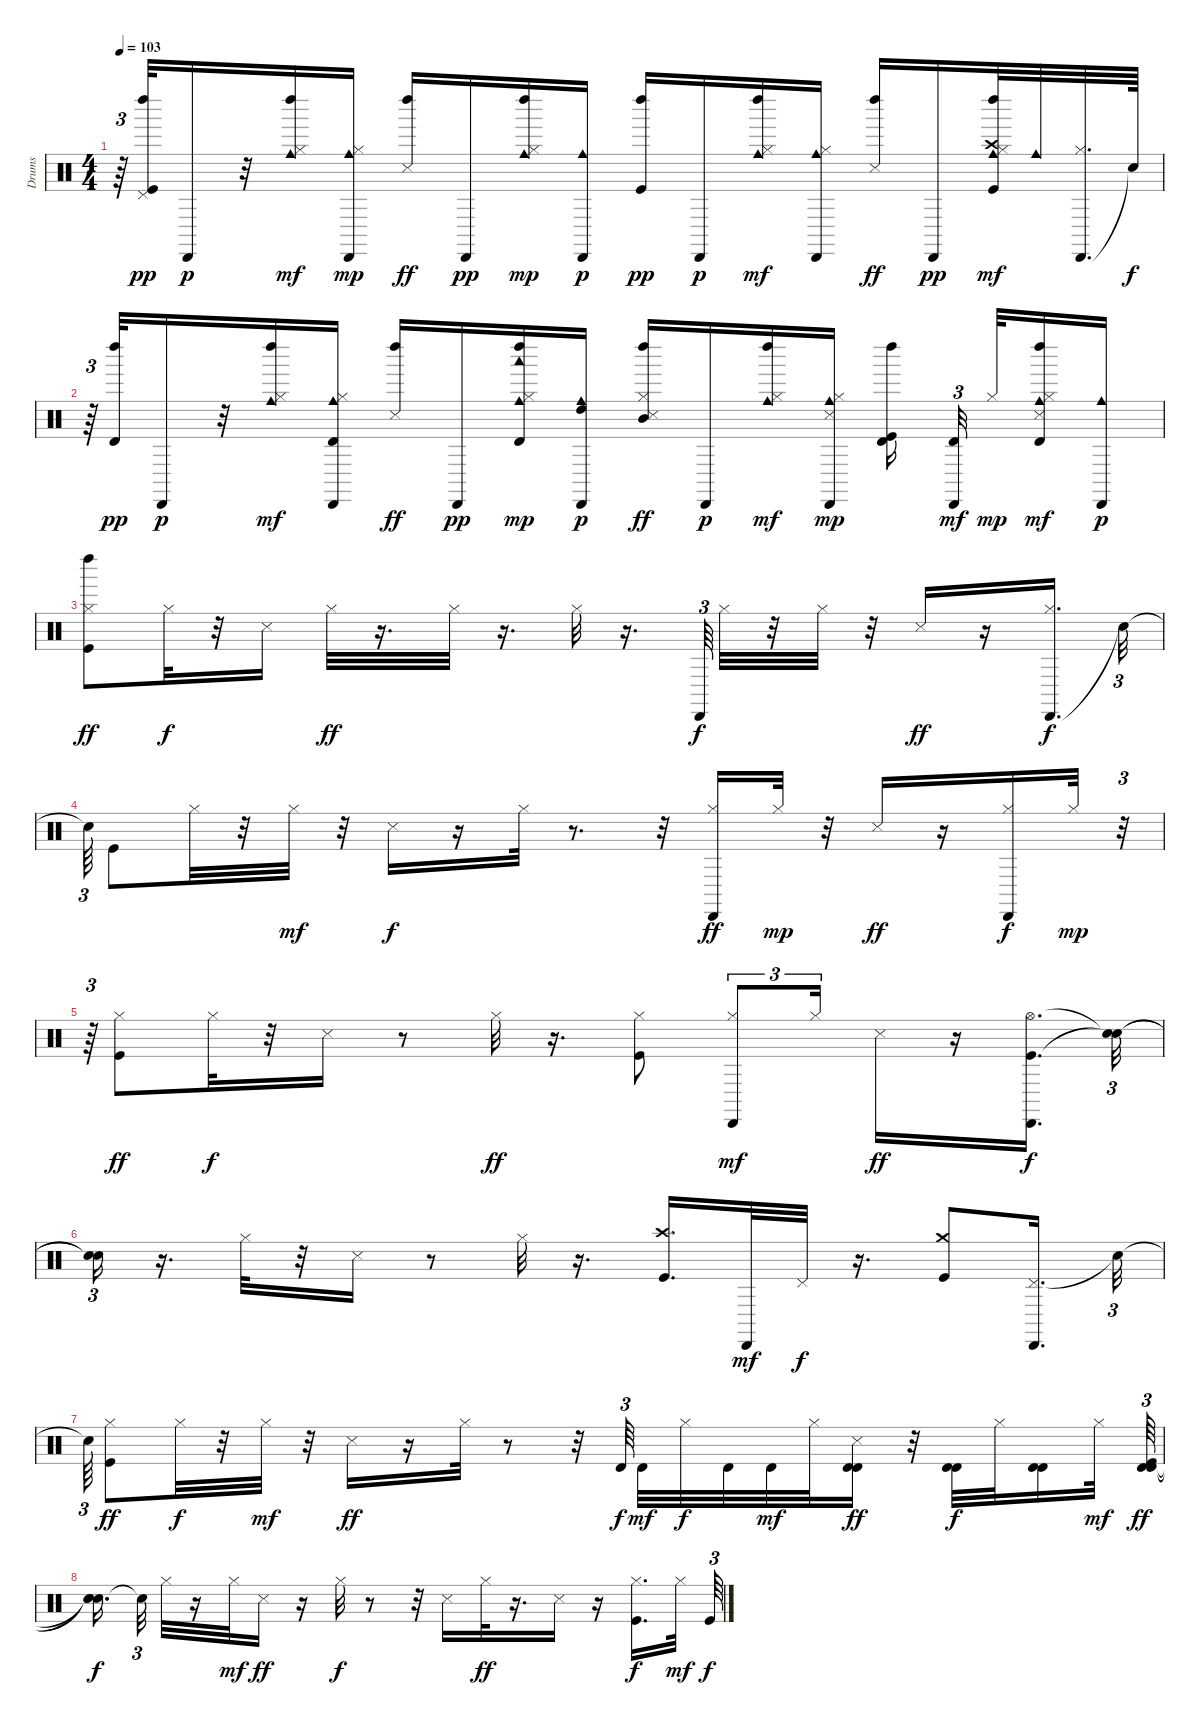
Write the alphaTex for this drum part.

\track ("Drums" "Drums") {instrument percussion}
\staff {score}
\articulation defaults
\ts (4 4)
\tempo 103
\clef neutral
\ks c
r.64{tu (3 2) dy f} ("Pedal Hi-Hat (hit)" "Left Maraca (hit)" "Kick (hit)").32{dy pp} "Cabasa (hit)".16{dy p} r.32 ("Left Maraca (hit)" "Hi-Hat (closed)" "Cowbell medium (hit)").16{dy mf} ("Cowbell medium (hit)" "Cabasa (hit)" "Hi-Hat (closed)").16{dy mp} ("Left Maraca (hit)" "Snare (side stick) 3").16{dy ff} "Cabasa (hit)".16{dy pp} ("Left Maraca (hit)" "Hi-Hat (closed)" "Cowbell medium (hit)").16{dy mp} ("Cowbell medium (hit)" "Cabasa (hit)").16{dy p} ("Left Maraca (hit)" "Kick (hit)").16{dy pp} "Cabasa (hit)".16{dy p} ("Left Maraca (hit)" "Hi-Hat (closed)" "Cowbell medium (hit)").16{dy mf} ("Cowbell medium (hit)" "Cabasa (hit)" "Hi-Hat (closed)").16 ("Left Maraca (hit)" "Snare (side stick) 3").16{dy ff} "Cabasa (hit)".16{dy pp} ("Left Maraca (hit)" "Crash high (hit)" "Kick (hit)" "Hi-Hat (closed)" "Cowbell medium (hit)").32{dy mf} "Cowbell medium (hit)".32 ("Cabasa (hit)" "Hi-Hat (closed)").32{d} "Snare (hit)"{t}.64{dy f} |
r.64{tu (3 2)} ("Left Maraca (hit)" "Timbale high (hit)").32{dy pp} "Cabasa (hit)".16{dy p} r.32 ("Left Maraca (hit)" "Hi-Hat (closed)" "Cowbell medium (hit)").16{dy mf} ("Cowbell medium (hit)" "Cabasa (hit)" "Timbale high (hit)" "Hi-Hat (closed)").16 ("Left Maraca (hit)" "Snare (side stick) 3").16{dy ff} "Cabasa (hit)".16{dy pp} ("Timbale high (hit)" "Left Maraca (hit)" "Hi-Hat (closed)" "Woodblock low (hit)" "Cowbell medium (hit)").16{dy mp} ("Cowbell medium (hit)" "Cabasa (hit)" "High Tom (hit)").16{dy p} ("Left Maraca (hit)" "Mid Tom (hit)" "Snare (side stick) 3" "Hi-Hat (closed)").16{dy ff} "Cabasa (hit)".16{dy p} ("Left Maraca (hit)" "Hi-Hat (closed)" "Cowbell medium (hit)").16{dy mf} ("Cowbell medium (hit)" "Cabasa (hit)" "Snare (side stick) 3" "Hi-Hat (closed)").16{dy mp} ("Left Maraca (hit)" "Kick (hit)" "Timbale high (hit)").16{beam splitsecondary} ("Cabasa (hit)" "Timbale high (hit)").32{tu (3 2) dy mf beam splitsecondary} "Hi-Hat (closed)".32{dy mp} ("Timbale high (hit)" "Left Maraca (hit)" "Snare (side stick) 3" "Hi-Hat (closed)" "Cowbell medium (hit)").16{dy mf} ("Cowbell medium (hit)" "Cabasa (hit)").16{dy p} |
("Left Maraca (hit)" "Kick (hit)" "Hi-Hat (closed)").8{dy ff} "Hi-Hat (closed)".32{dy f} r.32 "Snare (side stick) 3".16 "Hi-Hat (closed)".32{dy ff} r.16{d} "Hi-Hat (closed)".32 r.16{d} "Hi-Hat (closed)".32 r.16{d} "Cabasa (hit)".64{tu (3 2) dy f} "Hi-Hat (closed)".32 r.32 "Hi-Hat (closed)".32 r.32 "Snare (side stick) 3".16{dy ff} r.16 ("Cabasa (hit)" "Hi-Hat (closed)").16{d dy f} "Snare (hit)"{t}.32{tu (3 2)} |
"Snare (hit)"{t}.64{tu (3 2)} "Kick (hit)".8 "Hi-Hat (closed)".32 r.32 "Hi-Hat (closed)".32{dy mf} r.32 "Snare (side stick) 3".16{dy f} r.16 "Hi-Hat (closed)".32 r.8{d} r.32 ("Cabasa (hit)" "Hi-Hat (closed)").16{dy ff} "Hi-Hat (closed)".32{dy mp} r.32 "Snare (side stick) 3".16{dy ff} r.16 ("Cabasa (hit)" "Hi-Hat (closed)").16{dy f} "Hi-Hat (closed)".32{dy mp} r.32{tu (3 2)} |
r.64{tu (3 2)} ("Kick (hit)" "Hi-Hat (closed)").8{dy ff} "Hi-Hat (closed)".32{dy f} r.32 "Snare (side stick) 3".16 r.8 "Hi-Hat (closed)".32{dy ff} r.16{d} ("Kick (hit)" "Hi-Hat (closed)").8 ("Cabasa (hit)" "Hi-Hat (closed)").8{tu (3 2) dy mf} "Hi-Hat (closed)".16{tu (3 2)} "Snare (side stick) 3".16{dy ff} r.16 ("Hi-Hat (open)" "Kick (hit)" "Cabasa (hit)").16{d dy f} ("Snare (hit)"{t} "Snare (hit)"{t}).32{tu (3 2)} |
("Snare (hit)"{t} "Snare (hit)"{t}).16{tu (3 2)} r.16{d} "Hi-Hat (closed)".32 r.32 "Snare (side stick) 3".16 r.8 "Hi-Hat (closed)".32 r.16{d} ("Crash high (hit)" "Kick (hit)").16{d} "Cabasa (hit)".32{dy mf} "Pedal Hi-Hat (hit)".32{dy f} r.16{d} ("Crash medium (hit)" "Kick (hit)").8 ("Pedal Hi-Hat (hit)" "Cabasa (hit)").16{d} "Snare (hit)"{t}.32{tu (3 2)} |
"Snare (hit)"{t}.64{tu (3 2)} ("Kick (hit)" "Hi-Hat (closed)").8{dy ff} "Hi-Hat (closed)".32{dy f} r.32 "Hi-Hat (closed)".32{dy mf} r.32 "Snare (side stick) 3".16{dy ff} r.16 "Hi-Hat (closed)".32 r.8 r.32 "Timbale high (hit)".64{tu (3 2) dy f beam splitsecondary} "Timbale high (hit)".32{dy mf} "Hi-Hat (closed)".32{dy f} "Timbale high (hit)".32 "Timbale high (hit)".32{dy mf} "Hi-Hat (closed)".32 ("Timbale high (hit)" "Timbale high (hit)" "Snare (side stick) 3").16{dy ff} r.32 ("Timbale high (hit)" "Timbale high (hit)").32{dy f} "Hi-Hat (closed)".32 ("Timbale high (hit)" "Timbale high (hit)").16 "Hi-Hat (closed)".32{dy mf} ("Timbale high (hit)" "Timbale high (hit)" "Kick (hit)").64{tu (3 2) dy ff} |
("Snare (hit)"{t} "Snare (hit)"{t} "Snare (hit)"{t}).16{d dy f beam splitsecondary} "Snare (hit)"{t}.32{tu (3 2)} "Hi-Hat (closed)".32 r.16 "Hi-Hat (closed)".32{dy mf} "Snare (side stick) 3".16{dy ff} r.16 "Hi-Hat (closed)".32{dy f} r.8 r.32 "Snare (side stick) 3".16 "Hi-Hat (closed)".32{dy ff} r.16{d} "Snare (side stick) 3".16 r.16 ("Kick (hit)" "Hi-Hat (closed)").16{d dy f} "Hi-Hat (closed)".32{dy mf} "Kick (hit)".64{tu (3 2) dy f}
